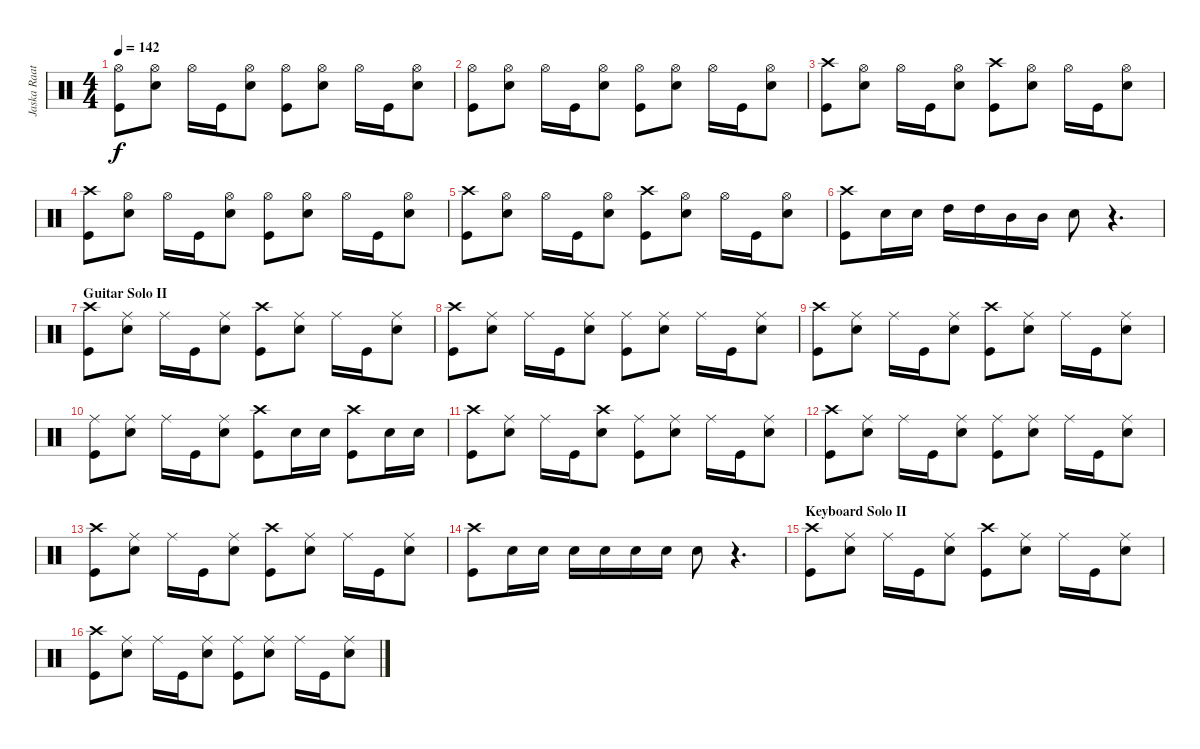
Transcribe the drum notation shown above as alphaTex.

\track ("Jaska Raatikainen" "Jaska Raat") {instrument percussion}
\staff {score}
\articulation defaults
\ts (4 4)
\tempo 142
\clef neutral
\ks c
("Hi-Hat (open)" "Kick (hit)").8{dy f} ("Hi-Hat (open)" "Snare (hit) 2").8 "Hi-Hat (open)".16 "Kick (hit)".16 ("Hi-Hat (open)" "Snare (hit) 2").8 ("Hi-Hat (open)" "Kick (hit)").8 ("Hi-Hat (open)" "Snare (hit) 2").8 "Hi-Hat (open)".16 "Kick (hit)".16 ("Hi-Hat (open)" "Snare (hit) 2").8 |
("Hi-Hat (open)" "Kick (hit)").8 ("Hi-Hat (open)" "Snare (hit) 2").8 "Hi-Hat (open)".16 "Kick (hit)".16 ("Hi-Hat (open)" "Snare (hit) 2").8 ("Hi-Hat (open)" "Kick (hit)").8 ("Hi-Hat (open)" "Snare (hit) 2").8 "Hi-Hat (open)".16 "Kick (hit)".16 ("Hi-Hat (open)" "Snare (hit) 2").8 |
("Crash high (hit)" "Kick (hit)").8 ("Hi-Hat (open)" "Snare (hit) 2").8 "Hi-Hat (open)".16 "Kick (hit)".16 ("Hi-Hat (open)" "Snare (hit) 2").8 ("Crash high (hit)" "Kick (hit)").8 ("Hi-Hat (open)" "Snare (hit) 2").8 "Hi-Hat (open)".16 "Kick (hit)".16 ("Hi-Hat (open)" "Snare (hit) 2").8 |
("Crash high (hit)" "Kick (hit)").8 ("Hi-Hat (open)" "Snare (hit) 2").8 "Hi-Hat (open)".16 "Kick (hit)".16 ("Hi-Hat (open)" "Snare (hit) 2").8 ("Hi-Hat (open)" "Kick (hit)").8 ("Hi-Hat (open)" "Snare (hit) 2").8 "Hi-Hat (open)".16 "Kick (hit)".16 ("Hi-Hat (open)" "Snare (hit) 2").8 |
("Crash high (hit)" "Kick (hit)").8 ("Hi-Hat (open)" "Snare (hit) 2").8 "Hi-Hat (open)".16 "Kick (hit)".16 ("Hi-Hat (open)" "Snare (hit) 2").8 ("Crash high (hit)" "Kick (hit)").8 ("Hi-Hat (open)" "Snare (hit) 2").8 "Hi-Hat (open)".16 "Kick (hit)".16 ("Hi-Hat (open)" "Snare (hit) 2").8 |
("Crash high (hit)" "Kick (hit)").8 "Snare (hit) 2".16 "Snare (hit) 2".16 "High Tom (hit)".16 "High Tom (hit)".16 "Mid Tom (hit)".16 "Mid Tom (hit)".16 "Snare (hit) 2".8 r.4{d} |
\section ("" "Guitar Solo II")
("Crash high (hit)" "Kick (hit)").8 ("Ride (middle)" "Snare (hit) 2").8 "Ride (middle)".16 "Kick (hit)".16 ("Ride (middle)" "Snare (hit) 2").8 ("Crash high (hit)" "Kick (hit)").8 ("Ride (middle)" "Snare (hit) 2").8 "Ride (middle)".16 "Kick (hit)".16 ("Ride (middle)" "Snare (hit) 2").8 |
("Crash high (hit)" "Kick (hit)").8 ("Ride (middle)" "Snare (hit) 2").8 "Ride (middle)".16 "Kick (hit)".16 ("Ride (middle)" "Snare (hit) 2").8 ("Ride (middle)" "Kick (hit)").8 ("Ride (middle)" "Snare (hit) 2").8 "Ride (middle)".16 "Kick (hit)".16 ("Ride (middle)" "Snare (hit) 2").8 |
("Crash high (hit)" "Kick (hit)").8 ("Ride (middle)" "Snare (hit) 2").8 "Ride (middle)".16 "Kick (hit)".16 ("Ride (middle)" "Snare (hit) 2").8 ("Crash high (hit)" "Kick (hit)").8 ("Ride (middle)" "Snare (hit) 2").8 "Ride (middle)".16 "Kick (hit)".16 ("Ride (middle)" "Snare (hit) 2").8 |
("Ride (middle)" "Kick (hit)").8 ("Ride (middle)" "Snare (hit) 2").8 "Ride (middle)".16 "Kick (hit)".16 ("Ride (middle)" "Snare (hit) 2").8 ("Crash high (hit)" "Kick (hit)").8 "Snare (hit) 2".16 "Snare (hit) 2".16 ("Crash high (hit)" "Kick (hit)").8 "Snare (hit) 2".16 "Snare (hit) 2".16 |
("Crash high (hit)" "Kick (hit)").8 ("Ride (middle)" "Snare (hit) 2").8 "Ride (middle)".16 "Kick (hit)".16 ("Crash high (hit)" "Snare (hit) 2").8 ("Ride (middle)" "Kick (hit)").8 ("Ride (middle)" "Snare (hit) 2").8 "Ride (middle)".16 "Kick (hit)".16 ("Ride (middle)" "Snare (hit) 2").8 |
("Crash high (hit)" "Kick (hit)").8 ("Ride (middle)" "Snare (hit) 2").8 "Ride (middle)".16 "Kick (hit)".16 ("Ride (middle)" "Snare (hit) 2").8 ("Ride (middle)" "Kick (hit)").8 ("Ride (middle)" "Snare (hit) 2").8 "Ride (middle)".16 "Kick (hit)".16 ("Ride (middle)" "Snare (hit) 2").8 |
("Crash high (hit)" "Kick (hit)").8 ("Ride (middle)" "Snare (hit) 2").8 "Ride (middle)".16 "Kick (hit)".16 ("Ride (middle)" "Snare (hit) 2").8 ("Crash high (hit)" "Kick (hit)").8 ("Ride (middle)" "Snare (hit) 2").8 "Ride (middle)".16 "Kick (hit)".16 ("Ride (middle)" "Snare (hit) 2").8 |
("Crash high (hit)" "Kick (hit)").8 "Snare (hit) 2".16 "Snare (hit) 2".16 "Snare (hit) 2".16 "Snare (hit) 2".16 "Snare (hit) 2".16 "Snare (hit) 2".16 "Snare (hit) 2".8 r.4{d} |
\section ("" "Keyboard Solo II")
("Crash high (hit)" "Kick (hit)").8 ("Ride (middle)" "Snare (hit) 2").8 "Ride (middle)".16 "Kick (hit)".16 ("Ride (middle)" "Snare (hit) 2").8 ("Crash high (hit)" "Kick (hit)").8 ("Ride (middle)" "Snare (hit) 2").8 "Ride (middle)".16 "Kick (hit)".16 ("Ride (middle)" "Snare (hit) 2").8 |
("Crash high (hit)" "Kick (hit)").8 ("Ride (middle)" "Snare (hit) 2").8 "Ride (middle)".16 "Kick (hit)".16 ("Ride (middle)" "Snare (hit) 2").8 ("Ride (middle)" "Kick (hit)").8 ("Ride (middle)" "Snare (hit) 2").8 "Ride (middle)".16 "Kick (hit)".16 ("Ride (middle)" "Snare (hit) 2").8
